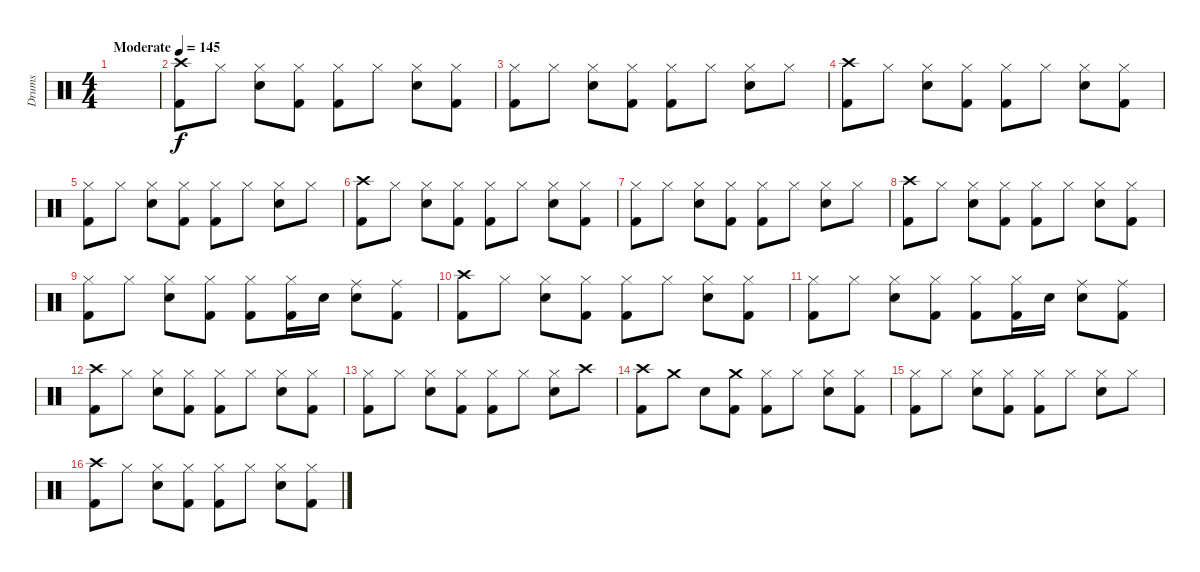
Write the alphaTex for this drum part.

\track ("Drums" "Drums") {instrument percussion}
\staff {score}
\articulation defaults
\ts (4 4)
\tempo (145 "Moderate")
\clef neutral
\ks c
|
("Kick (hit) 2" "Crash high (hit)").8 "Hi-Hat (closed)".8 ("Electric Snare (hit)" "Hi-Hat (closed)").8 ("Kick (hit) 2" "Hi-Hat (closed)").8 ("Kick (hit) 2" "Hi-Hat (closed)").8 "Hi-Hat (closed)".8 ("Electric Snare (hit)" "Hi-Hat (closed)").8 ("Kick (hit) 2" "Hi-Hat (closed)").8 |
("Kick (hit) 2" "Hi-Hat (closed)").8 "Hi-Hat (closed)".8 ("Electric Snare (hit)" "Hi-Hat (closed)").8 ("Kick (hit) 2" "Hi-Hat (closed)").8 ("Kick (hit) 2" "Hi-Hat (closed)").8 "Hi-Hat (closed)".8 ("Electric Snare (hit)" "Hi-Hat (closed)").8 "Hi-Hat (closed)".8 |
("Kick (hit) 2" "Crash high (hit)").8 "Hi-Hat (closed)".8 ("Electric Snare (hit)" "Hi-Hat (closed)").8 ("Kick (hit) 2" "Hi-Hat (closed)").8 ("Kick (hit) 2" "Hi-Hat (closed)").8 "Hi-Hat (closed)".8 ("Electric Snare (hit)" "Hi-Hat (closed)").8 ("Kick (hit) 2" "Hi-Hat (closed)").8 |
("Kick (hit) 2" "Hi-Hat (closed)").8 "Hi-Hat (closed)".8 ("Electric Snare (hit)" "Hi-Hat (closed)").8 ("Kick (hit) 2" "Hi-Hat (closed)").8 ("Kick (hit) 2" "Hi-Hat (closed)").8 "Hi-Hat (closed)".8 ("Electric Snare (hit)" "Hi-Hat (closed)").8 "Hi-Hat (closed)".8 |
("Kick (hit) 2" "Crash high (hit)").8 "Hi-Hat (closed)".8 ("Electric Snare (hit)" "Hi-Hat (closed)").8 ("Kick (hit) 2" "Hi-Hat (closed)").8 ("Kick (hit) 2" "Hi-Hat (closed)").8 "Hi-Hat (closed)".8 ("Electric Snare (hit)" "Hi-Hat (closed)").8 ("Kick (hit) 2" "Hi-Hat (closed)").8 |
("Kick (hit) 2" "Hi-Hat (closed)").8 "Hi-Hat (closed)".8 ("Electric Snare (hit)" "Hi-Hat (closed)").8 ("Kick (hit) 2" "Hi-Hat (closed)").8 ("Kick (hit) 2" "Hi-Hat (closed)").8 "Hi-Hat (closed)".8 ("Electric Snare (hit)" "Hi-Hat (closed)").8 "Hi-Hat (closed)".8 |
("Kick (hit) 2" "Crash high (hit)").8 "Hi-Hat (closed)".8 ("Electric Snare (hit)" "Hi-Hat (closed)").8 ("Kick (hit) 2" "Hi-Hat (closed)").8 ("Kick (hit) 2" "Hi-Hat (closed)").8 "Hi-Hat (closed)".8 ("Electric Snare (hit)" "Hi-Hat (closed)").8 ("Kick (hit) 2" "Hi-Hat (closed)").8 |
("Kick (hit) 2" "Hi-Hat (closed)").8 "Hi-Hat (closed)".8 ("Electric Snare (hit)" "Hi-Hat (closed)").8 ("Kick (hit) 2" "Hi-Hat (closed)").8 ("Kick (hit) 2" "Hi-Hat (closed)").8 ("Kick (hit) 2" "Hi-Hat (closed)").16 "Electric Snare (hit)".16 ("Electric Snare (hit)" "Ride (middle)").8 ("Kick (hit) 2" "Ride (middle)").8 |
("Kick (hit) 2" "Crash high (hit)").8 "Hi-Hat (closed)".8 ("Electric Snare (hit)" "Hi-Hat (closed)").8 ("Kick (hit) 2" "Hi-Hat (closed)").8 ("Kick (hit) 2" "Hi-Hat (closed)").8 "Hi-Hat (closed)".8 ("Electric Snare (hit)" "Hi-Hat (closed)").8 ("Kick (hit) 2" "Hi-Hat (closed)").8 |
("Kick (hit) 2" "Hi-Hat (closed)").8 "Hi-Hat (closed)".8 ("Electric Snare (hit)" "Hi-Hat (closed)").8 ("Kick (hit) 2" "Hi-Hat (closed)").8 ("Kick (hit) 2" "Hi-Hat (closed)").8 ("Kick (hit) 2" "Hi-Hat (closed)").16 "Electric Snare (hit)".16 ("Electric Snare (hit)" "Ride (middle)").8 ("Kick (hit) 2" "Ride (middle)").8 |
("Kick (hit) 2" "Crash high (hit)").8 "Hi-Hat (closed)".8 ("Electric Snare (hit)" "Hi-Hat (closed)").8 ("Kick (hit) 2" "Hi-Hat (closed)").8 ("Kick (hit) 2" "Hi-Hat (closed)").8 "Hi-Hat (closed)".8 ("Electric Snare (hit)" "Hi-Hat (closed)").8 ("Kick (hit) 2" "Hi-Hat (closed)").8 |
("Kick (hit) 2" "Hi-Hat (closed)").8 "Hi-Hat (closed)".8 ("Electric Snare (hit)" "Hi-Hat (closed)").8 ("Kick (hit) 2" "Hi-Hat (closed)").8 ("Kick (hit) 2" "Hi-Hat (closed)").8 "Hi-Hat (closed)".8 ("Electric Snare (hit)" "Hi-Hat (closed)").8 "Crash high (hit)".8 |
("Kick (hit) 2" "Crash high (hit)").8 "Crash medium (hit)".8 "Electric Snare (hit)".8 ("Kick (hit) 2" "Crash medium (hit)").8 ("Kick (hit) 2" "Hi-Hat (closed)").8 "Hi-Hat (closed)".8 ("Electric Snare (hit)" "Hi-Hat (closed)").8 ("Kick (hit) 2" "Hi-Hat (closed)").8 |
("Kick (hit) 2" "Hi-Hat (closed)").8 "Hi-Hat (closed)".8 ("Electric Snare (hit)" "Hi-Hat (closed)").8 ("Kick (hit) 2" "Hi-Hat (closed)").8 ("Kick (hit) 2" "Hi-Hat (closed)").8 "Hi-Hat (closed)".8 ("Electric Snare (hit)" "Hi-Hat (closed)").8 "Hi-Hat (closed)".8 |
("Kick (hit) 2" "Crash high (hit)").8 "Hi-Hat (closed)".8 ("Electric Snare (hit)" "Hi-Hat (closed)").8 ("Kick (hit) 2" "Hi-Hat (closed)").8 ("Kick (hit) 2" "Hi-Hat (closed)").8 "Hi-Hat (closed)".8 ("Electric Snare (hit)" "Hi-Hat (closed)").8 ("Kick (hit) 2" "Hi-Hat (closed)").8
